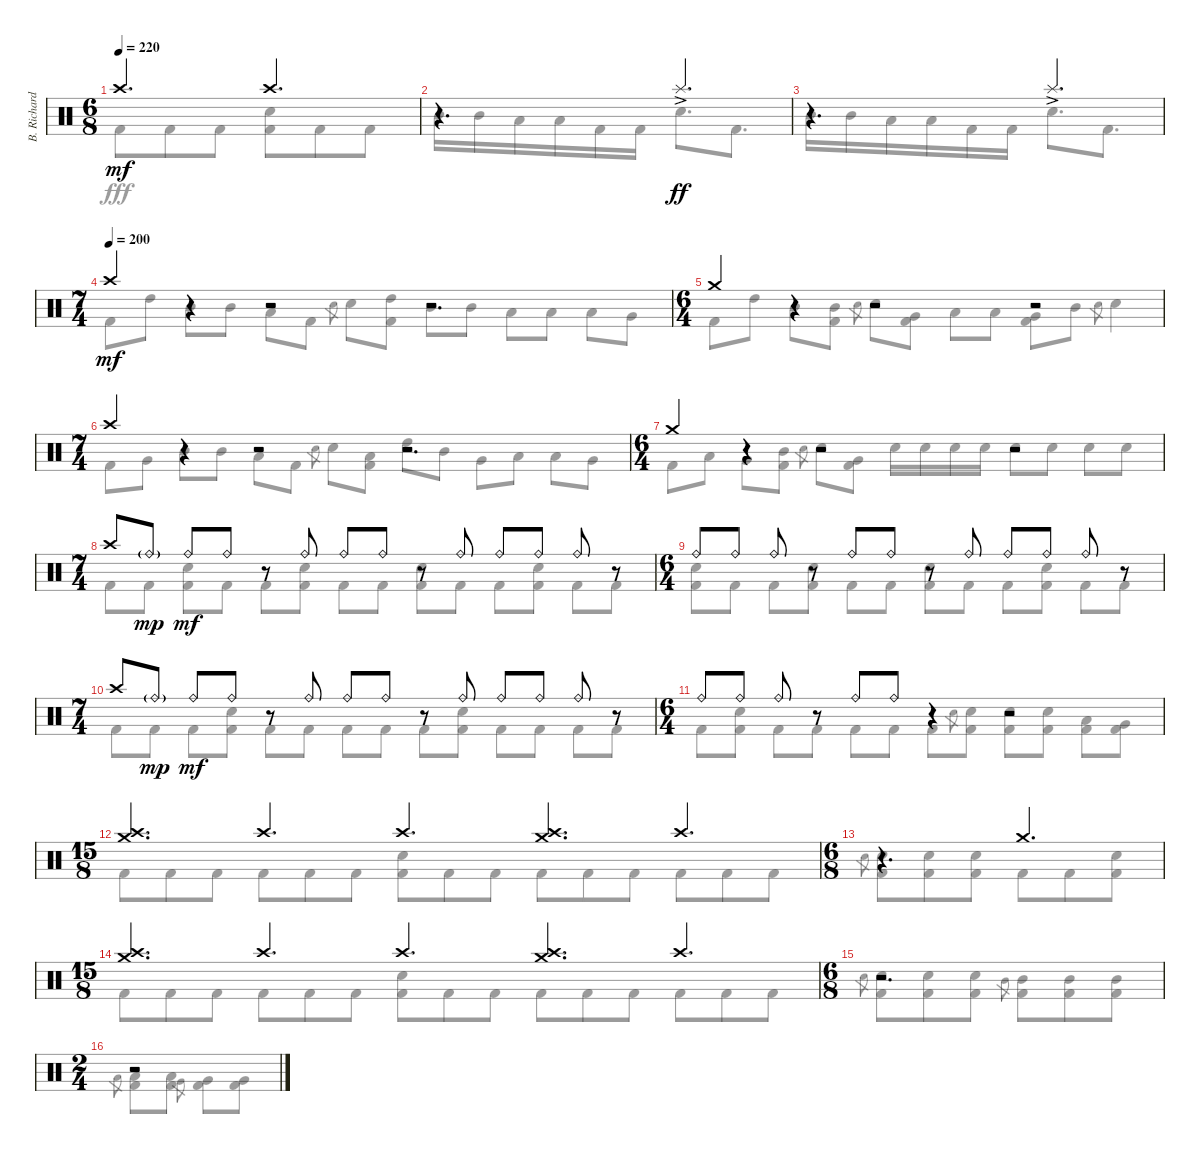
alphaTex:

\track ("B. Richardson Drums" "B. Richard") {instrument percussion}
\staff {score}
\articulation defaults
\voice
\ts (6 8)
\tempo 220
\clef neutral
\ks c "Crash high (hit)".4{d dy mf} "Crash high (hit)".4{d}
|
r.4{d} "Splash (hit)"{ac}.4{d dy ff} |
r.4{d} "Splash (hit)"{ac}.4{d} |
\ts (7 4)
\tempo (200)
"Crash high (hit)".4{dy mf} r.4 r.2 r.2{d} |
\ts (6 4)
"Crash medium (hit)".4 r.4 r.2 r.2 |
\ts (7 4)
"Crash high (hit)".4 r.4 r.2 r.2{d} |
\ts (6 4)
"Crash medium (hit)".4 r.4 r.2 r.2 |
\ts (7 4)
"Crash high (hit)".8 "Ride (bell)"{g}.8{dy mp} "Ride (bell)".8{dy mf} "Ride (bell)".8 r.8 "Ride (bell)".8 "Ride (bell)".8 "Ride (bell)".8 r.8 "Ride (bell)".8 "Ride (bell)".8 "Ride (bell)".8 "Ride (bell)".8 r.8 |
\ts (6 4)
"Ride (bell)".8 "Ride (bell)".8 "Ride (bell)".8 r.8 "Ride (bell)".8 "Ride (bell)".8 r.8 "Ride (bell)".8 "Ride (bell)".8 "Ride (bell)".8 "Ride (bell)".8 r.8 |
\ts (7 4)
"Crash high (hit)".8 "Ride (bell)"{g}.8{dy mp} "Ride (bell)".8{dy mf} "Ride (bell)".8 r.8 "Ride (bell)".8 "Ride (bell)".8 "Ride (bell)".8 r.8 "Ride (bell)".8 "Ride (bell)".8 "Ride (bell)".8 "Ride (bell)".8 r.8 |
\ts (6 4)
"Ride (bell)".8 "Ride (bell)".8 "Ride (bell)".8 r.8 "Ride (bell)".8 "Ride (bell)".8 r.4 r.2 |
\ts (15 8)
("Crash high (hit)" "Crash medium (hit)").4{d} "Crash high (hit)".4{d} "Crash high (hit)".4{d} ("Crash high (hit)" "Crash medium (hit)").4{d} "Crash high (hit)".4{d} |
\ts (6 8)
r.4{d} "Crash medium (hit)".4{d} |
\ts (15 8)
("Crash high (hit)" "Crash medium (hit)").4{d} "Crash high (hit)".4{d} "Crash high (hit)".4{d} ("Crash high (hit)" "Crash medium (hit)").4{d} "Crash high (hit)".4{d} |
\ts (6 8)
r.2{d} |
\ts (2 4)
r.2
\voice
\clef neutral
\ottava regular
\simile none
\ks c "Kick (hit) 2".8{dy fff} "Kick (hit) 2".8 "Kick (hit) 2".8
("Electric Snare (hit)" "Kick (hit) 2").8 "Kick (hit) 2".8 "Kick (hit) 2".8 |
"Mid Tom (hit)".16 "Mid Tom (hit)".16 "Low Tom (hit)".16 "Low Tom (hit)".16 "Kick (hit) 2".16 "Kick (hit) 2".16 "Electric Snare (hit)".8{d} "Kick (hit) 2".8{d} |
"Mid Tom (hit)".16 "Mid Tom (hit)".16 "Low Tom (hit)".16 "Low Tom (hit)".16 "Kick (hit) 2".16 "Kick (hit) 2".16 "Electric Snare (hit)".8{d} "Kick (hit) 2".8{d} |
"Kick (hit) 2".8 "High Tom (hit)".8 "Mid Tom (hit)".8 "Mid Tom (hit)".8 "Low Tom (hit)".8 "Kick (hit) 2".8 "Electric Snare (hit)".8{gr} "Electric Snare (hit)".8 ("High Tom (hit)" "Kick (hit) 2").8 "Mid Tom (hit)".8 "Mid Tom (hit)".8 "Low Tom (hit)".8 "Low Tom (hit)".8 "Low Tom (hit)".8 "Very Low Tom (hit)".8 |
"Kick (hit) 2".8 "High Tom (hit)".8 "Mid Tom (hit)".8 ("Mid Tom (hit)" "Kick (hit) 2").8 "Electric Snare (hit)".8{gr} "Electric Snare (hit)".8 ("Very Low Tom (hit)" "Kick (hit) 2").8 "Low Tom (hit)".8 "Low Tom (hit)".8 ("Very Low Tom (hit)" "Kick (hit) 2").8 "Mid Tom (hit)".8 "Electric Snare (hit)".8{gr} "Electric Snare (hit)".4 |
"Kick (hit) 2".8 "Very Low Tom (hit)".8 "Mid Tom (hit)".8 "Mid Tom (hit)".8 "Low Tom (hit)".8 "Kick (hit) 2".8 "Electric Snare (hit)".8{gr} "Electric Snare (hit)".8 ("Low Tom (hit)" "Kick (hit) 2").8 "High Tom (hit)".8 "Mid Tom (hit)".8 "Very Low Tom (hit)".8 "Low Tom (hit)".8 "Low Tom (hit)".8 "Very Low Tom (hit)".8 |
"Kick (hit) 2".8 "Low Tom (hit)".8 "Very Low Tom (hit)".8 ("Mid Tom (hit)" "Kick (hit) 2").8 "Electric Snare (hit)".8{gr} "Electric Snare (hit)".8 ("Very Low Tom (hit)" "Kick (hit) 2").8 "Electric Snare (hit)".16 "Electric Snare (hit)".16 "Electric Snare (hit)".16 "Electric Snare (hit)".16 "Electric Snare (hit)".8 "Electric Snare (hit)".8 "Electric Snare (hit)".8 "Electric Snare (hit)".8 |
"Kick (hit) 2".8 "Kick (hit) 2".8 ("Electric Snare (hit)" "Kick (hit) 2").8 "Kick (hit) 2".8 "Kick (hit) 2".8 ("Electric Snare (hit)" "Kick (hit) 2").8 "Kick (hit) 2".8 "Kick (hit) 2".8 ("Electric Snare (hit)" "Kick (hit) 2").8 "Kick (hit) 2".8 "Kick (hit) 2".8 ("Electric Snare (hit)" "Kick (hit) 2").8 "Kick (hit) 2".8 "Kick (hit) 2".8 |
("Electric Snare (hit)" "Kick (hit) 2").8 "Kick (hit) 2".8 "Kick (hit) 2".8 ("Electric Snare (hit)" "Kick (hit) 2").8 "Kick (hit) 2".8 "Kick (hit) 2".8 ("Electric Snare (hit)" "Kick (hit) 2").8 "Kick (hit) 2".8 "Kick (hit) 2".8 ("Electric Snare (hit)" "Kick (hit) 2").8 "Kick (hit) 2".8 "Kick (hit) 2".8 |
"Kick (hit) 2".8 "Kick (hit) 2".8 "Kick (hit) 2".8 ("Electric Snare (hit)" "Kick (hit) 2").8 "Kick (hit) 2".8 "Kick (hit) 2".8 "Kick (hit) 2".8 "Kick (hit) 2".8 "Kick (hit) 2".8 ("Electric Snare (hit)" "Kick (hit) 2").8 "Kick (hit) 2".8 "Kick (hit) 2".8 "Kick (hit) 2".8 "Kick (hit) 2".8 |
"Kick (hit) 2".8 ("Electric Snare (hit)" "Kick (hit) 2").8 "Kick (hit) 2".8 "Kick (hit) 2".8 "Kick (hit) 2".8 "Kick (hit) 2".8 "Kick (hit) 2".8 "Electric Snare (hit)".8{gr} ("Electric Snare (hit)" "Kick (hit) 2").8 ("Electric Snare (hit)" "Kick (hit) 2").8 ("Electric Snare (hit)" "Kick (hit) 2").8 ("Low Tom (hit)" "Kick (hit) 2").8 ("Very Low Tom (hit)" "Kick (hit) 2").8 |
"Kick (hit) 2".8 "Kick (hit) 2".8 "Kick (hit) 2".8 "Kick (hit) 2".8 "Kick (hit) 2".8 "Kick (hit) 2".8 ("Electric Snare (hit)" "Kick (hit) 2").8 "Kick (hit) 2".8 "Kick (hit) 2".8 "Kick (hit) 2".8 "Kick (hit) 2".8 "Kick (hit) 2".8 "Kick (hit) 2".8 "Kick (hit) 2".8 "Kick (hit) 2".8 |
"Electric Snare (hit)".8{gr} ("Electric Snare (hit)" "Kick (hit) 2").8 ("Electric Snare (hit)" "Kick (hit) 2").8 ("Electric Snare (hit)" "Kick (hit) 2").8 "Kick (hit) 2".8 "Kick (hit) 2".8 ("Electric Snare (hit)" "Kick (hit) 2").8 |
"Kick (hit) 2".8 "Kick (hit) 2".8 "Kick (hit) 2".8 "Kick (hit) 2".8 "Kick (hit) 2".8 "Kick (hit) 2".8 ("Electric Snare (hit)" "Kick (hit) 2").8 "Kick (hit) 2".8 "Kick (hit) 2".8 "Kick (hit) 2".8 "Kick (hit) 2".8 "Kick (hit) 2".8 "Kick (hit) 2".8 "Kick (hit) 2".8 "Kick (hit) 2".8 |
"Electric Snare (hit)".8{gr} ("Electric Snare (hit)" "Kick (hit) 2").8 ("Electric Snare (hit)" "Kick (hit) 2").8 ("Electric Snare (hit)" "Kick (hit) 2").8 "Mid Tom (hit)".8{gr} ("Mid Tom (hit)" "Kick (hit) 2").8 ("Mid Tom (hit)" "Kick (hit) 2").8 ("Mid Tom (hit)" "Kick (hit) 2").8 |
"Low Tom (hit)".8{gr} ("Low Tom (hit)" "Kick (hit) 2").8 ("Low Tom (hit)" "Kick (hit) 2").8 "Very Low Tom (hit)".8{gr} ("Very Low Tom (hit)" "Kick (hit) 2").8 ("Very Low Tom (hit)" "Kick (hit) 2").8
